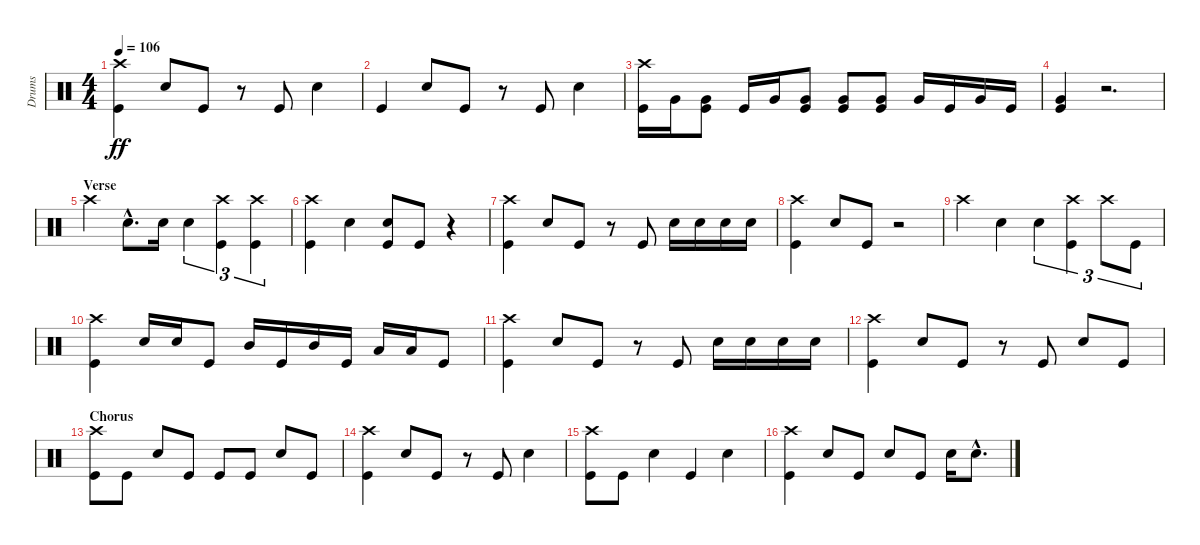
\track ("Drums" "Drums") {instrument percussion}
\staff {score}
\articulation defaults
\ts (4 4)
\tempo 106
\clef neutral
\ks c
("Crash high (hit)" "Kick (hit)").4{dy ff} "Snare (hit) 2".8 "Kick (hit)".8 r.8 "Kick (hit)".8 "Snare (hit) 2".4 |
"Kick (hit)".4 "Snare (hit) 2".8 "Kick (hit)".8 r.8 "Kick (hit)".8 "Snare (hit) 2".4 |
("Crash high (hit)" "Kick (hit)").16 "Very Low Tom (hit)".16 ("Very Low Tom (hit)" "Kick (hit)").8 "Kick (hit)".16 "Very Low Tom (hit)".16 ("Very Low Tom (hit)" "Kick (hit)").8 ("Very Low Tom (hit)" "Kick (hit)").8 ("Very Low Tom (hit)" "Kick (hit)").8 "Very Low Tom (hit)".16 "Kick (hit)".16 "Very Low Tom (hit)".16 "Kick (hit)".16 |
("Very Low Tom (hit)" "Kick (hit)").4 r.2{d} |
\section ("" "Verse")
"Crash high (hit)".4 "Snare (hit) 2"{hac}.8{d} "Snare (hit) 2".16 "Snare (hit) 2".4{tu (3 2)} ("Crash high (hit)" "Kick (hit)").4{tu (3 2)} ("Crash high (hit)" "Kick (hit)").4{tu (3 2)} |
("Crash high (hit)" "Kick (hit)").4 "Snare (hit) 2".4 ("Snare (hit) 2" "Kick (hit)").8 "Kick (hit)".8 r.4 |
("Crash high (hit)" "Kick (hit)").4 "Snare (hit) 2".8 "Kick (hit)".8 r.8 "Kick (hit)".8 "Snare (hit) 2".16 "Snare (hit) 2".16 "Snare (hit) 2".16 "Snare (hit) 2".16 |
("Crash high (hit)" "Kick (hit)").4 "Snare (hit) 2".8 "Kick (hit)".8 r.2 |
"Crash high (hit)".4 "Snare (hit) 2".4 "Snare (hit) 2".4{tu (3 2)} ("Crash high (hit)" "Kick (hit)").4{tu (3 2)} "Crash high (hit)".8{tu (3 2)} "Kick (hit)".8{tu (3 2)} |
("Crash high (hit)" "Kick (hit)").4 "Snare (hit) 2".16 "Snare (hit) 2".16 "Kick (hit)".8 "Mid Tom (hit)".16 "Kick (hit)".16 "Mid Tom (hit)".16 "Kick (hit)".16 "Low Tom (hit)".16 "Low Tom (hit)".16 "Kick (hit)".8 |
("Crash high (hit)" "Kick (hit)").4 "Snare (hit) 2".8 "Kick (hit)".8 r.8 "Kick (hit)".8 "Snare (hit) 2".16 "Snare (hit) 2".16 "Snare (hit) 2".16 "Snare (hit) 2".16 |
("Crash high (hit)" "Kick (hit)").4 "Snare (hit) 2".8 "Kick (hit)".8 r.8 "Kick (hit)".8 "Snare (hit) 2".8 "Kick (hit)".8 |
\section ("" "Chorus")
("Crash high (hit)" "Kick (hit)").8 "Kick (hit)".8 "Snare (hit) 2".8 "Kick (hit)".8 "Kick (hit)".8 "Kick (hit)".8 "Snare (hit) 2".8 "Kick (hit)".8 |
("Crash high (hit)" "Kick (hit)").4 "Snare (hit) 2".8 "Kick (hit)".8 r.8 "Kick (hit)".8 "Snare (hit) 2".4 |
("Crash high (hit)" "Kick (hit)").8 "Kick (hit)".8 "Snare (hit) 2".4 "Kick (hit)".4 "Snare (hit) 2".4 |
("Crash high (hit)" "Kick (hit)").4 "Snare (hit) 2".8 "Kick (hit)".8 "Snare (hit) 2".8 "Kick (hit)".8 "Snare (hit) 2".16 "Snare (hit) 2"{hac}.8{d}
